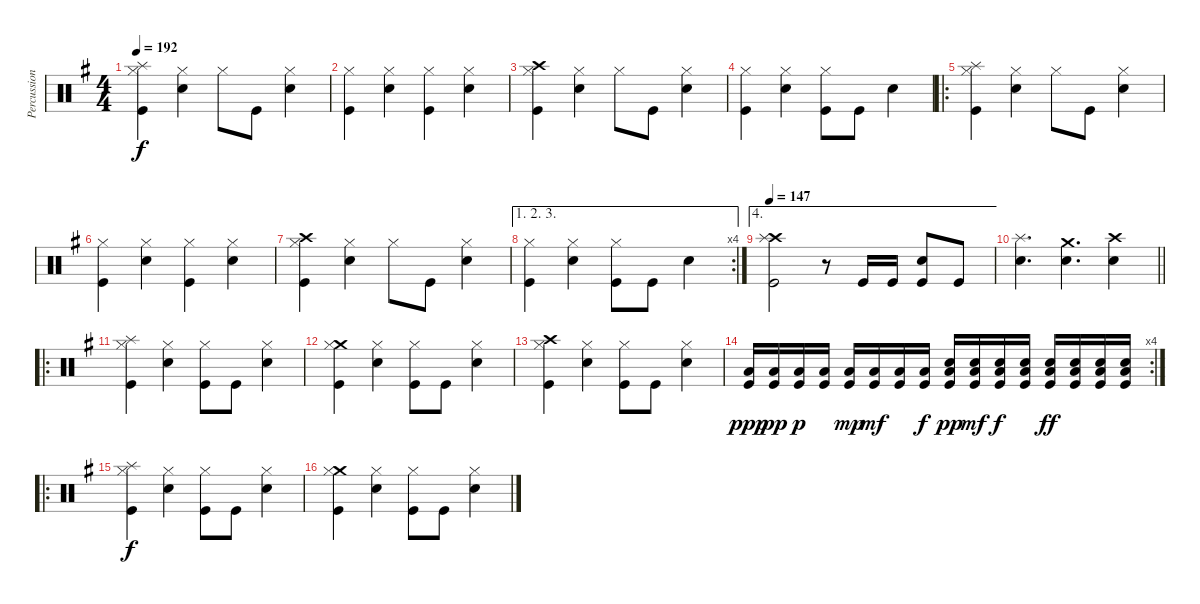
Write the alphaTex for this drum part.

\track ("Percussion" "Percussion") {instrument percussion}
\staff {score}
\articulation defaults
\ts (4 4)
\tempo 192
\clef neutral
\ks g
("Hi-Hat (closed)" "Splash (hit)" "Kick (hit)").4{dy f} ("Hi-Hat (closed)" "Snare (hit) 2").4 "Hi-Hat (closed)".8 "Kick (hit)".8 ("Snare (hit) 2" "Hi-Hat (closed)").4 |
("Hi-Hat (closed)" "Kick (hit)").4 ("Hi-Hat (closed)" "Snare (hit) 2").4 ("Hi-Hat (closed)" "Kick (hit)").4 ("Hi-Hat (closed)" "Snare (hit) 2").4 |
("Hi-Hat (closed)" "Crash high (hit)" "Kick (hit)").4 ("Hi-Hat (closed)" "Snare (hit) 2").4 "Hi-Hat (closed)".8 "Kick (hit)".8 ("Snare (hit) 2" "Hi-Hat (closed)").4 |
("Hi-Hat (closed)" "Kick (hit)").4 ("Hi-Hat (closed)" "Snare (hit) 2").4 ("Hi-Hat (closed)" "Kick (hit)").8 "Kick (hit)".8 "Snare (hit) 2".4 |
\ro
("Hi-Hat (closed)" "Splash (hit)" "Kick (hit)").4 ("Hi-Hat (closed)" "Snare (hit) 2").4 "Hi-Hat (closed)".8 "Kick (hit)".8 ("Snare (hit) 2" "Hi-Hat (closed)").4 |
("Hi-Hat (closed)" "Kick (hit)").4 ("Hi-Hat (closed)" "Snare (hit) 2").4 ("Hi-Hat (closed)" "Kick (hit)").4 ("Hi-Hat (closed)" "Snare (hit) 2").4 |
("Hi-Hat (closed)" "Crash high (hit)" "Kick (hit)").4 ("Hi-Hat (closed)" "Snare (hit) 2").4 "Hi-Hat (closed)".8 "Kick (hit)".8 ("Snare (hit) 2" "Hi-Hat (closed)").4 |
\ae (1 2 3)
\rc 4
("Hi-Hat (closed)" "Kick (hit)").4 ("Hi-Hat (closed)" "Snare (hit) 2").4 ("Hi-Hat (closed)" "Kick (hit)").8 "Kick (hit)".8 "Snare (hit) 2".4 |
\ae 4
\tempo 147
("Crash high (hit)" "Splash (hit)" "Kick (hit)").2 r.8 "Kick (hit)".16 "Kick (hit)".16 ("Snare (hit) 2" "Kick (hit)").8 "Kick (hit)".8 |
\barLineRight lightlight
("Splash (hit)" "Snare (hit) 2").4{d} ("Crash medium (hit)" "Snare (hit) 2").4{d} ("Crash high (hit)" "Snare (hit) 2").4 |
\ro
("Splash (hit)" "Hi-Hat (closed)" "Kick (hit)").4 ("Hi-Hat (closed)" "Snare (hit) 2").4 ("Hi-Hat (closed)" "Kick (hit)").8 "Kick (hit)".8 ("Hi-Hat (closed)" "Snare (hit) 2").4 |
("Crash medium (hit)" "Hi-Hat (closed)" "Kick (hit)").4 ("Hi-Hat (closed)" "Snare (hit) 2").4 ("Hi-Hat (closed)" "Kick (hit)").8 "Kick (hit)".8 ("Hi-Hat (closed)" "Snare (hit) 2").4 |
("Crash high (hit)" "Hi-Hat (closed)" "Kick (hit)").4 ("Hi-Hat (closed)" "Snare (hit) 2").4 ("Hi-Hat (closed)" "Kick (hit)").8 "Kick (hit)".8 ("Hi-Hat (closed)" "Snare (hit) 2").4 |
\rc 4
("Low Floor Tom (hit)" "Kick (hit)").16{dy ppp} ("Low Floor Tom (hit)" "Kick (hit)").16{dy pp} ("Low Floor Tom (hit)" "Kick (hit)").16{dy p} ("Low Floor Tom (hit)" "Kick (hit)").16 ("Low Floor Tom (hit)" "Kick (hit)").16{dy mp} ("Low Floor Tom (hit)" "Kick (hit)").16{dy mf} ("Low Floor Tom (hit)" "Kick (hit)").16 ("Low Floor Tom (hit)" "Kick (hit)").16{dy f} ("Snare (hit) 2" "Low Floor Tom (hit)" "Kick (hit)").16{dy pp} ("Snare (hit) 2" "Low Floor Tom (hit)" "Kick (hit)").16{dy mf} ("Snare (hit) 2" "Low Floor Tom (hit)" "Kick (hit)").16{dy f} ("Snare (hit) 2" "Low Floor Tom (hit)" "Kick (hit)").16 ("Snare (hit) 2" "Low Floor Tom (hit)" "Kick (hit)").16{dy ff} ("Snare (hit) 2" "Low Floor Tom (hit)" "Kick (hit)").16 ("Snare (hit) 2" "Low Floor Tom (hit)" "Kick (hit)").16 ("Snare (hit) 2" "Low Floor Tom (hit)" "Kick (hit)").16 |
\ro
("Splash (hit)" "Hi-Hat (closed)" "Kick (hit)").4{dy f} ("Hi-Hat (closed)" "Snare (hit) 2").4 ("Hi-Hat (closed)" "Kick (hit)").8 "Kick (hit)".8 ("Hi-Hat (closed)" "Snare (hit) 2").4 |
("Crash medium (hit)" "Hi-Hat (closed)" "Kick (hit)").4 ("Hi-Hat (closed)" "Snare (hit) 2").4 ("Hi-Hat (closed)" "Kick (hit)").8 "Kick (hit)".8 ("Hi-Hat (closed)" "Snare (hit) 2").4
